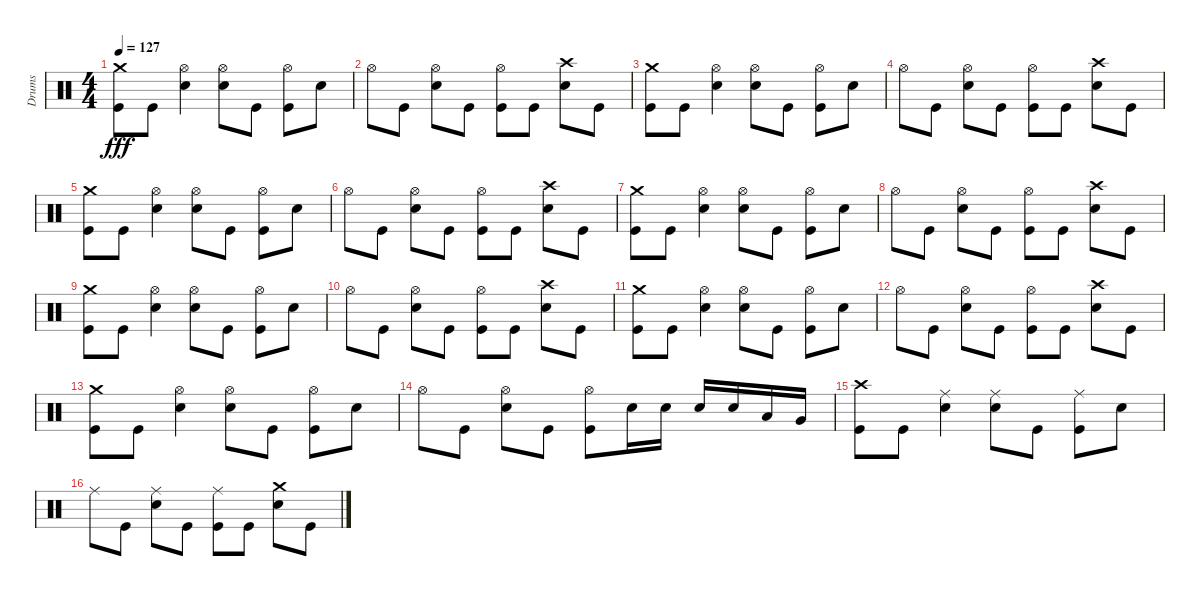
\track ("Drums" "Drums") {instrument percussion}
\staff {score}
\articulation defaults
\ts (4 4)
\tempo 127
\clef neutral
\ks c
("Crash medium (hit)" "Kick (hit)").8{dy fff} "Kick (hit)".8 ("Hi-Hat (open)" "Snare (hit) 2").4 ("Hi-Hat (open)" "Snare (hit) 2").8 "Kick (hit)".8 ("Hi-Hat (open)" "Kick (hit)").8 "Snare (hit) 2".8 |
"Hi-Hat (open)".8 "Kick (hit)".8 ("Hi-Hat (open)" "Snare (hit) 2").8 "Kick (hit)".8 ("Hi-Hat (open)" "Kick (hit)").8 "Kick (hit)".8 ("Crash high (hit)" "Snare (hit) 2").8 "Kick (hit)".8 |
("Crash medium (hit)" "Kick (hit)").8 "Kick (hit)".8 ("Hi-Hat (open)" "Snare (hit) 2").4 ("Hi-Hat (open)" "Snare (hit) 2").8 "Kick (hit)".8 ("Hi-Hat (open)" "Kick (hit)").8 "Snare (hit) 2".8 |
"Hi-Hat (open)".8 "Kick (hit)".8 ("Hi-Hat (open)" "Snare (hit) 2").8 "Kick (hit)".8 ("Hi-Hat (open)" "Kick (hit)").8 "Kick (hit)".8 ("Crash high (hit)" "Snare (hit) 2").8 "Kick (hit)".8 |
("Crash medium (hit)" "Kick (hit)").8 "Kick (hit)".8 ("Hi-Hat (open)" "Snare (hit) 2").4 ("Hi-Hat (open)" "Snare (hit) 2").8 "Kick (hit)".8 ("Hi-Hat (open)" "Kick (hit)").8 "Snare (hit) 2".8 |
"Hi-Hat (open)".8 "Kick (hit)".8 ("Hi-Hat (open)" "Snare (hit) 2").8 "Kick (hit)".8 ("Hi-Hat (open)" "Kick (hit)").8 "Kick (hit)".8 ("Crash high (hit)" "Snare (hit) 2").8 "Kick (hit)".8 |
("Crash medium (hit)" "Kick (hit)").8 "Kick (hit)".8 ("Hi-Hat (open)" "Snare (hit) 2").4 ("Hi-Hat (open)" "Snare (hit) 2").8 "Kick (hit)".8 ("Hi-Hat (open)" "Kick (hit)").8 "Snare (hit) 2".8 |
"Hi-Hat (open)".8 "Kick (hit)".8 ("Hi-Hat (open)" "Snare (hit) 2").8 "Kick (hit)".8 ("Hi-Hat (open)" "Kick (hit)").8 "Kick (hit)".8 ("Crash high (hit)" "Snare (hit) 2").8 "Kick (hit)".8 |
("Crash medium (hit)" "Kick (hit)").8 "Kick (hit)".8 ("Hi-Hat (open)" "Snare (hit) 2").4 ("Hi-Hat (open)" "Snare (hit) 2").8 "Kick (hit)".8 ("Hi-Hat (open)" "Kick (hit)").8 "Snare (hit) 2".8 |
"Hi-Hat (open)".8 "Kick (hit)".8 ("Hi-Hat (open)" "Snare (hit) 2").8 "Kick (hit)".8 ("Hi-Hat (open)" "Kick (hit)").8 "Kick (hit)".8 ("Crash high (hit)" "Snare (hit) 2").8 "Kick (hit)".8 |
("Crash medium (hit)" "Kick (hit)").8 "Kick (hit)".8 ("Hi-Hat (open)" "Snare (hit) 2").4 ("Hi-Hat (open)" "Snare (hit) 2").8 "Kick (hit)".8 ("Hi-Hat (open)" "Kick (hit)").8 "Snare (hit) 2".8 |
"Hi-Hat (open)".8 "Kick (hit)".8 ("Hi-Hat (open)" "Snare (hit) 2").8 "Kick (hit)".8 ("Hi-Hat (open)" "Kick (hit)").8 "Kick (hit)".8 ("Crash high (hit)" "Snare (hit) 2").8 "Kick (hit)".8 |
("Crash medium (hit)" "Kick (hit)").8 "Kick (hit)".8 ("Hi-Hat (open)" "Snare (hit) 2").4 ("Hi-Hat (open)" "Snare (hit) 2").8 "Kick (hit)".8 ("Hi-Hat (open)" "Kick (hit)").8 "Snare (hit) 2".8 |
"Hi-Hat (open)".8 "Kick (hit)".8 ("Hi-Hat (open)" "Snare (hit) 2").8 "Kick (hit)".8 ("Hi-Hat (open)" "Kick (hit)").8 "Snare (hit) 2".16 "Snare (hit) 2".16 "Snare (hit) 2".16 "Snare (hit) 2".16 "Low Tom (hit)".16 "Very Low Tom (hit)".16 |
("Crash high (hit)" "Kick (hit)").8 "Kick (hit)".8 ("Ride (middle)" "Snare (hit) 2").4 ("Ride (middle)" "Snare (hit) 2").8 "Kick (hit)".8 ("Ride (middle)" "Kick (hit)").8 "Snare (hit) 2".8 |
"Ride (middle)".8 "Kick (hit)".8 ("Ride (middle)" "Snare (hit) 2").8 "Kick (hit)".8 ("Ride (middle)" "Kick (hit)").8 "Kick (hit)".8 ("Crash medium (hit)" "Snare (hit) 2").8 "Kick (hit)".8
